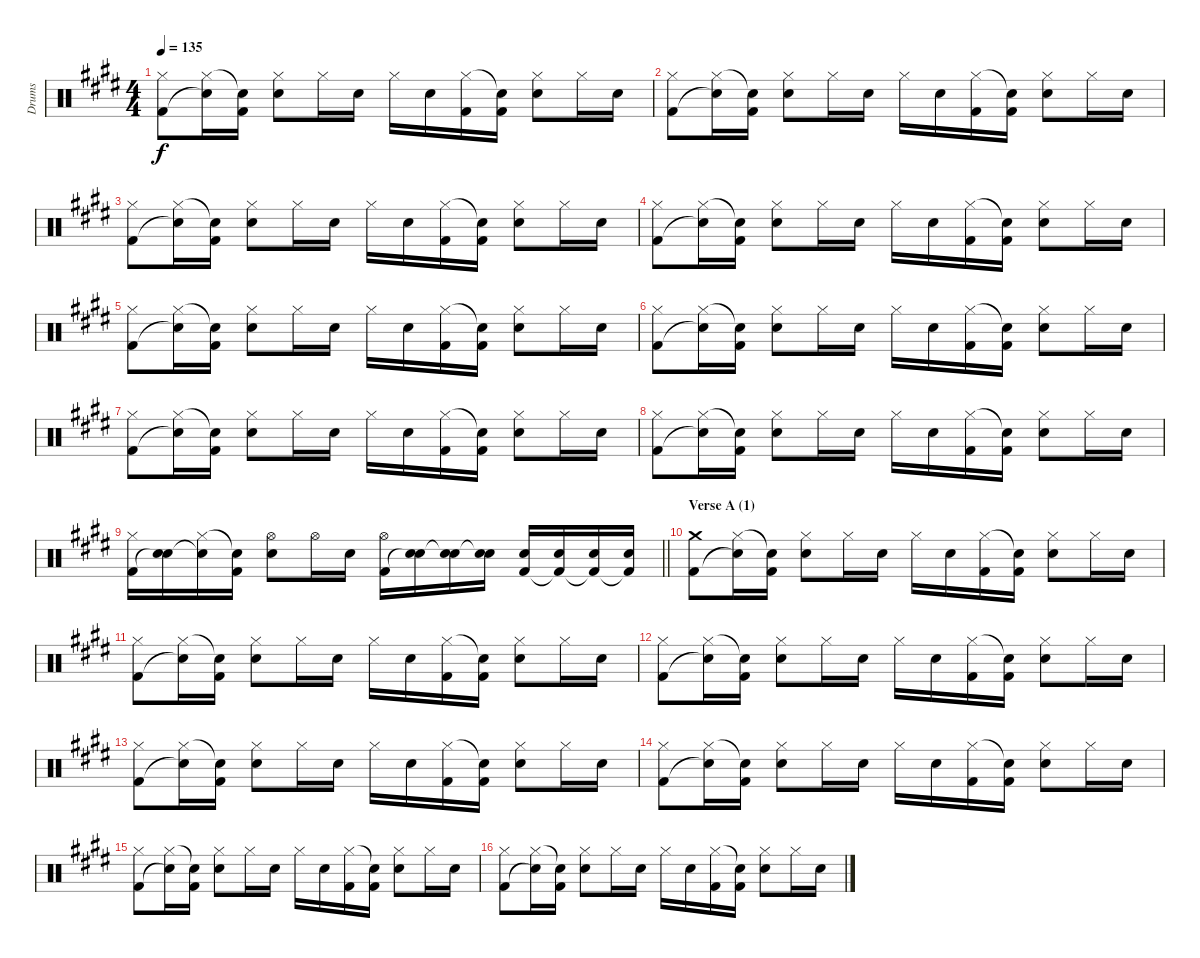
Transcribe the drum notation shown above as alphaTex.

\track ("Drums" "Drums") {instrument percussion}
\staff {score}
\articulation defaults
\ts (4 4)
\tempo 135
\clef neutral
\ks c#minor
("Hi-Hat (closed)" "Kick (hit) 2").8{dy f} ("Hi-Hat (closed)" "Snare (hit)"{t}).16 ("Snare (hit)"{t} "Kick (hit) 2").16 ("Hi-Hat (closed)" "Electric Snare (hit)").8 "Hi-Hat (closed)".16 "Electric Snare (hit)".16 "Hi-Hat (closed)".16 "Electric Snare (hit)".16 ("Hi-Hat (closed)" "Kick (hit) 2").16 ("Snare (hit)"{t} "Kick (hit) 2").16 ("Hi-Hat (closed)" "Electric Snare (hit)").8 "Hi-Hat (closed)".16 "Electric Snare (hit)".16 |
("Hi-Hat (closed)" "Kick (hit) 2").8 ("Hi-Hat (closed)" "Snare (hit)"{t}).16 ("Snare (hit)"{t} "Kick (hit) 2").16 ("Hi-Hat (closed)" "Electric Snare (hit)").8 "Hi-Hat (closed)".16 "Electric Snare (hit)".16 "Hi-Hat (closed)".16 "Electric Snare (hit)".16 ("Hi-Hat (closed)" "Kick (hit) 2").16 ("Snare (hit)"{t} "Kick (hit) 2").16 ("Hi-Hat (closed)" "Electric Snare (hit)").8 "Hi-Hat (closed)".16 "Electric Snare (hit)".16 |
("Hi-Hat (closed)" "Kick (hit) 2").8 ("Hi-Hat (closed)" "Snare (hit)"{t}).16 ("Snare (hit)"{t} "Kick (hit) 2").16 ("Hi-Hat (closed)" "Electric Snare (hit)").8 "Hi-Hat (closed)".16 "Electric Snare (hit)".16 "Hi-Hat (closed)".16 "Electric Snare (hit)".16 ("Hi-Hat (closed)" "Kick (hit) 2").16 ("Snare (hit)"{t} "Kick (hit) 2").16 ("Hi-Hat (closed)" "Electric Snare (hit)").8 "Hi-Hat (closed)".16 "Electric Snare (hit)".16 |
("Hi-Hat (closed)" "Kick (hit) 2").8 ("Hi-Hat (closed)" "Snare (hit)"{t}).16 ("Snare (hit)"{t} "Kick (hit) 2").16 ("Hi-Hat (closed)" "Electric Snare (hit)").8 "Hi-Hat (closed)".16 "Electric Snare (hit)".16 "Hi-Hat (closed)".16 "Electric Snare (hit)".16 ("Hi-Hat (closed)" "Kick (hit) 2").16 ("Snare (hit)"{t} "Kick (hit) 2").16 ("Hi-Hat (closed)" "Electric Snare (hit)").8 "Hi-Hat (closed)".16 "Electric Snare (hit)".16 |
("Hi-Hat (closed)" "Kick (hit) 2").8 ("Hi-Hat (closed)" "Snare (hit)"{t}).16 ("Snare (hit)"{t} "Kick (hit) 2").16 ("Hi-Hat (closed)" "Electric Snare (hit)").8 "Hi-Hat (closed)".16 "Electric Snare (hit)".16 "Hi-Hat (closed)".16 "Electric Snare (hit)".16 ("Hi-Hat (closed)" "Kick (hit) 2").16 ("Snare (hit)"{t} "Kick (hit) 2").16 ("Hi-Hat (closed)" "Electric Snare (hit)").8 "Hi-Hat (closed)".16 "Electric Snare (hit)".16 |
("Hi-Hat (closed)" "Kick (hit) 2").8 ("Hi-Hat (closed)" "Snare (hit)"{t}).16 ("Snare (hit)"{t} "Kick (hit) 2").16 ("Hi-Hat (closed)" "Electric Snare (hit)").8 "Hi-Hat (closed)".16 "Electric Snare (hit)".16 "Hi-Hat (closed)".16 "Electric Snare (hit)".16 ("Hi-Hat (closed)" "Kick (hit) 2").16 ("Snare (hit)"{t} "Kick (hit) 2").16 ("Hi-Hat (closed)" "Electric Snare (hit)").8 "Hi-Hat (closed)".16 "Electric Snare (hit)".16 |
("Hi-Hat (closed)" "Kick (hit) 2").8 ("Hi-Hat (closed)" "Snare (hit)"{t}).16 ("Snare (hit)"{t} "Kick (hit) 2").16 ("Hi-Hat (closed)" "Electric Snare (hit)").8 "Hi-Hat (closed)".16 "Electric Snare (hit)".16 "Hi-Hat (closed)".16 "Electric Snare (hit)".16 ("Hi-Hat (closed)" "Kick (hit) 2").16 ("Snare (hit)"{t} "Kick (hit) 2").16 ("Hi-Hat (closed)" "Electric Snare (hit)").8 "Hi-Hat (closed)".16 "Electric Snare (hit)".16 |
("Hi-Hat (closed)" "Kick (hit) 2").8 ("Hi-Hat (closed)" "Snare (hit)"{t}).16 ("Snare (hit)"{t} "Kick (hit) 2").16 ("Hi-Hat (closed)" "Electric Snare (hit)").8 "Hi-Hat (closed)".16 "Electric Snare (hit)".16 "Hi-Hat (closed)".16 "Electric Snare (hit)".16 ("Hi-Hat (closed)" "Kick (hit) 2").16 ("Snare (hit)"{t} "Kick (hit) 2").16 ("Hi-Hat (closed)" "Electric Snare (hit)").8 "Hi-Hat (closed)".16 "Electric Snare (hit)".16 |
\barLineRight lightlight
("Hi-Hat (closed)" "Kick (hit) 2").16 ("Electric Snare (hit)" "Snare (hit)"{t}).16 ("Hi-Hat (closed)" "Snare (hit)"{t}).16 ("Snare (hit)"{t} "Kick (hit) 2").16 ("Hi-Hat (open)" "Electric Snare (hit)").8 "Hi-Hat (open)".16 "Electric Snare (hit)".16 ("Hi-Hat (open)" "Kick (hit) 2").16 ("Electric Snare (hit)" "Snare (hit)"{t}).16 ("Electric Snare (hit)" "Snare (hit)"{t}).16 ("Electric Snare (hit)" "Snare (hit)"{t}).16 ("Electric Snare (hit)" "Kick (hit) 2").16 ("Electric Snare (hit)" "Kick (hit) 2"{t}).16 ("Electric Snare (hit)" "Kick (hit) 2"{t}).16 ("Electric Snare (hit)" "Kick (hit) 2"{t}).16 |
\section ("" "Verse A (1)")
("Crash medium (hit)" "Kick (hit) 2").8 ("Hi-Hat (closed)" "Snare (hit)"{t}).16 ("Snare (hit)"{t} "Kick (hit) 2").16 ("Hi-Hat (closed)" "Electric Snare (hit)").8 "Hi-Hat (closed)".16 "Electric Snare (hit)".16 "Hi-Hat (closed)".16 "Electric Snare (hit)".16 ("Hi-Hat (closed)" "Kick (hit) 2").16 ("Snare (hit)"{t} "Kick (hit) 2").16 ("Hi-Hat (closed)" "Electric Snare (hit)").8 "Hi-Hat (closed)".16 "Electric Snare (hit)".16 |
("Hi-Hat (closed)" "Kick (hit) 2").8 ("Hi-Hat (closed)" "Snare (hit)"{t}).16 ("Snare (hit)"{t} "Kick (hit) 2").16 ("Hi-Hat (closed)" "Electric Snare (hit)").8 "Hi-Hat (closed)".16 "Electric Snare (hit)".16 "Hi-Hat (closed)".16 "Electric Snare (hit)".16 ("Hi-Hat (closed)" "Kick (hit) 2").16 ("Snare (hit)"{t} "Kick (hit) 2").16 ("Hi-Hat (closed)" "Electric Snare (hit)").8 "Hi-Hat (closed)".16 "Electric Snare (hit)".16 |
("Hi-Hat (closed)" "Kick (hit) 2").8 ("Hi-Hat (closed)" "Snare (hit)"{t}).16 ("Snare (hit)"{t} "Kick (hit) 2").16 ("Hi-Hat (closed)" "Electric Snare (hit)").8 "Hi-Hat (closed)".16 "Electric Snare (hit)".16 "Hi-Hat (closed)".16 "Electric Snare (hit)".16 ("Hi-Hat (closed)" "Kick (hit) 2").16 ("Snare (hit)"{t} "Kick (hit) 2").16 ("Hi-Hat (closed)" "Electric Snare (hit)").8 "Hi-Hat (closed)".16 "Electric Snare (hit)".16 |
("Hi-Hat (closed)" "Kick (hit) 2").8 ("Hi-Hat (closed)" "Snare (hit)"{t}).16 ("Snare (hit)"{t} "Kick (hit) 2").16 ("Hi-Hat (closed)" "Electric Snare (hit)").8 "Hi-Hat (closed)".16 "Electric Snare (hit)".16 "Hi-Hat (closed)".16 "Electric Snare (hit)".16 ("Hi-Hat (closed)" "Kick (hit) 2").16 ("Snare (hit)"{t} "Kick (hit) 2").16 ("Hi-Hat (closed)" "Electric Snare (hit)").8 "Hi-Hat (closed)".16 "Electric Snare (hit)".16 |
("Hi-Hat (closed)" "Kick (hit) 2").8 ("Hi-Hat (closed)" "Snare (hit)"{t}).16 ("Snare (hit)"{t} "Kick (hit) 2").16 ("Hi-Hat (closed)" "Electric Snare (hit)").8 "Hi-Hat (closed)".16 "Electric Snare (hit)".16 "Hi-Hat (closed)".16 "Electric Snare (hit)".16 ("Hi-Hat (closed)" "Kick (hit) 2").16 ("Snare (hit)"{t} "Kick (hit) 2").16 ("Hi-Hat (closed)" "Electric Snare (hit)").8 "Hi-Hat (closed)".16 "Electric Snare (hit)".16 |
("Hi-Hat (closed)" "Kick (hit) 2").8 ("Hi-Hat (closed)" "Snare (hit)"{t}).16 ("Snare (hit)"{t} "Kick (hit) 2").16 ("Hi-Hat (closed)" "Electric Snare (hit)").8 "Hi-Hat (closed)".16 "Electric Snare (hit)".16 "Hi-Hat (closed)".16 "Electric Snare (hit)".16 ("Hi-Hat (closed)" "Kick (hit) 2").16 ("Snare (hit)"{t} "Kick (hit) 2").16 ("Hi-Hat (closed)" "Electric Snare (hit)").8 "Hi-Hat (closed)".16 "Electric Snare (hit)".16 |
("Hi-Hat (closed)" "Kick (hit) 2").8 ("Hi-Hat (closed)" "Snare (hit)"{t}).16 ("Snare (hit)"{t} "Kick (hit) 2").16 ("Hi-Hat (closed)" "Electric Snare (hit)").8 "Hi-Hat (closed)".16 "Electric Snare (hit)".16 "Hi-Hat (closed)".16 "Electric Snare (hit)".16 ("Hi-Hat (closed)" "Kick (hit) 2").16 ("Snare (hit)"{t} "Kick (hit) 2").16 ("Hi-Hat (closed)" "Electric Snare (hit)").8 "Hi-Hat (closed)".16 "Electric Snare (hit)".16
